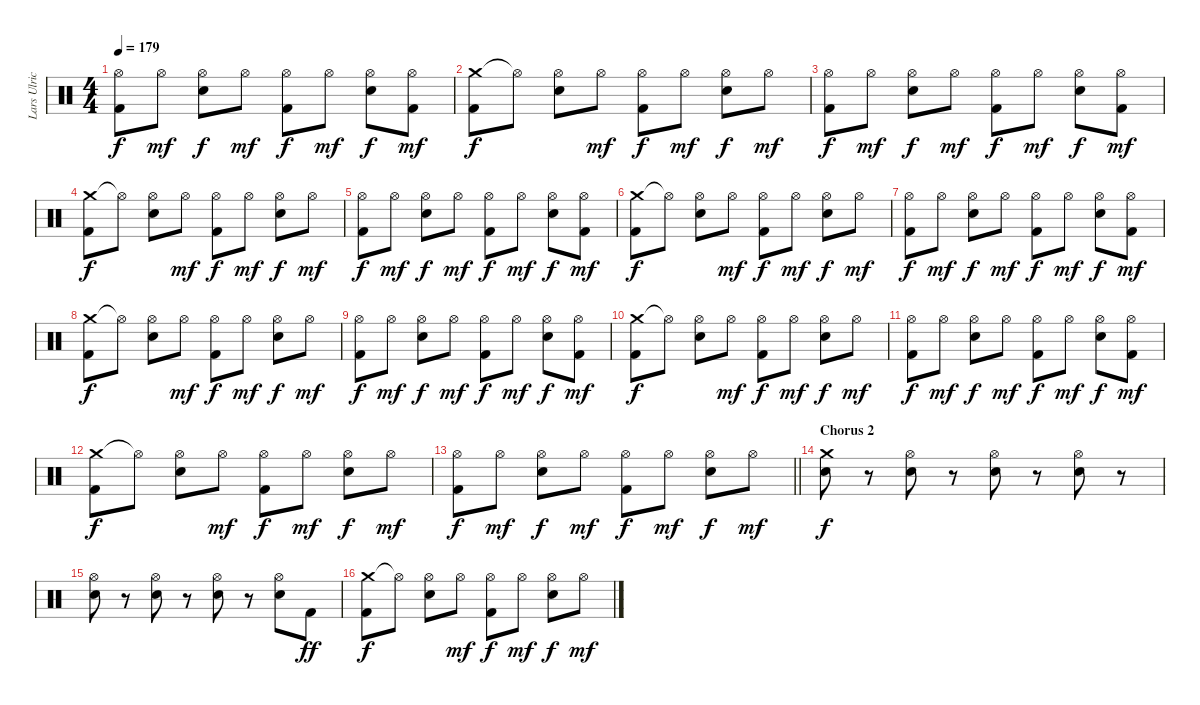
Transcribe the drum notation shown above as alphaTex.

\track ("Lars Ulrich" "Lars Ulric") {instrument percussion}
\staff {score}
\articulation defaults
\ts (4 4)
\tempo 179
\clef neutral
\ks c
("Hi-Hat (open)" "Kick (hit) 2").8{dy f} "Hi-Hat (open)".8{dy mf} ("Hi-Hat (open)" "Electric Snare (hit)").8{dy f} "Hi-Hat (open)".8{dy mf} ("Hi-Hat (open)" "Kick (hit) 2").8{dy f} "Hi-Hat (open)".8{dy mf} ("Hi-Hat (open)" "Electric Snare (hit)").8{dy f} ("Hi-Hat (open)" "Kick (hit) 2").8{dy mf} |
("Crash medium (hit)" "Kick (hit) 2").8{dy f} "Hi-Hat (open)"{t}.8 ("Hi-Hat (open)" "Electric Snare (hit)").8 "Hi-Hat (open)".8{dy mf} ("Hi-Hat (open)" "Kick (hit) 2").8{dy f} "Hi-Hat (open)".8{dy mf} ("Hi-Hat (open)" "Electric Snare (hit)").8{dy f} "Hi-Hat (open)".8{dy mf} |
("Hi-Hat (open)" "Kick (hit) 2").8{dy f} "Hi-Hat (open)".8{dy mf} ("Hi-Hat (open)" "Electric Snare (hit)").8{dy f} "Hi-Hat (open)".8{dy mf} ("Hi-Hat (open)" "Kick (hit) 2").8{dy f} "Hi-Hat (open)".8{dy mf} ("Hi-Hat (open)" "Electric Snare (hit)").8{dy f} ("Hi-Hat (open)" "Kick (hit) 2").8{dy mf} |
("Crash medium (hit)" "Kick (hit) 2").8{dy f} "Hi-Hat (open)"{t}.8 ("Hi-Hat (open)" "Electric Snare (hit)").8 "Hi-Hat (open)".8{dy mf} ("Hi-Hat (open)" "Kick (hit) 2").8{dy f} "Hi-Hat (open)".8{dy mf} ("Hi-Hat (open)" "Electric Snare (hit)").8{dy f} "Hi-Hat (open)".8{dy mf} |
("Hi-Hat (open)" "Kick (hit) 2").8{dy f} "Hi-Hat (open)".8{dy mf} ("Hi-Hat (open)" "Electric Snare (hit)").8{dy f} "Hi-Hat (open)".8{dy mf} ("Hi-Hat (open)" "Kick (hit) 2").8{dy f} "Hi-Hat (open)".8{dy mf} ("Hi-Hat (open)" "Electric Snare (hit)").8{dy f} ("Hi-Hat (open)" "Kick (hit) 2").8{dy mf} |
("Crash medium (hit)" "Kick (hit) 2").8{dy f} "Hi-Hat (open)"{t}.8 ("Hi-Hat (open)" "Electric Snare (hit)").8 "Hi-Hat (open)".8{dy mf} ("Hi-Hat (open)" "Kick (hit) 2").8{dy f} "Hi-Hat (open)".8{dy mf} ("Hi-Hat (open)" "Electric Snare (hit)").8{dy f} "Hi-Hat (open)".8{dy mf} |
("Hi-Hat (open)" "Kick (hit) 2").8{dy f} "Hi-Hat (open)".8{dy mf} ("Hi-Hat (open)" "Electric Snare (hit)").8{dy f} "Hi-Hat (open)".8{dy mf} ("Hi-Hat (open)" "Kick (hit) 2").8{dy f} "Hi-Hat (open)".8{dy mf} ("Hi-Hat (open)" "Electric Snare (hit)").8{dy f} ("Hi-Hat (open)" "Kick (hit) 2").8{dy mf} |
("Crash medium (hit)" "Kick (hit) 2").8{dy f} "Hi-Hat (open)"{t}.8 ("Hi-Hat (open)" "Electric Snare (hit)").8 "Hi-Hat (open)".8{dy mf} ("Hi-Hat (open)" "Kick (hit) 2").8{dy f} "Hi-Hat (open)".8{dy mf} ("Hi-Hat (open)" "Electric Snare (hit)").8{dy f} "Hi-Hat (open)".8{dy mf} |
("Hi-Hat (open)" "Kick (hit) 2").8{dy f} "Hi-Hat (open)".8{dy mf} ("Hi-Hat (open)" "Electric Snare (hit)").8{dy f} "Hi-Hat (open)".8{dy mf} ("Hi-Hat (open)" "Kick (hit) 2").8{dy f} "Hi-Hat (open)".8{dy mf} ("Hi-Hat (open)" "Electric Snare (hit)").8{dy f} ("Hi-Hat (open)" "Kick (hit) 2").8{dy mf} |
("Crash medium (hit)" "Kick (hit) 2").8{dy f} "Hi-Hat (open)"{t}.8 ("Hi-Hat (open)" "Electric Snare (hit)").8 "Hi-Hat (open)".8{dy mf} ("Hi-Hat (open)" "Kick (hit) 2").8{dy f} "Hi-Hat (open)".8{dy mf} ("Hi-Hat (open)" "Electric Snare (hit)").8{dy f} "Hi-Hat (open)".8{dy mf} |
("Hi-Hat (open)" "Kick (hit) 2").8{dy f} "Hi-Hat (open)".8{dy mf} ("Hi-Hat (open)" "Electric Snare (hit)").8{dy f} "Hi-Hat (open)".8{dy mf} ("Hi-Hat (open)" "Kick (hit) 2").8{dy f} "Hi-Hat (open)".8{dy mf} ("Hi-Hat (open)" "Electric Snare (hit)").8{dy f} ("Hi-Hat (open)" "Kick (hit) 2").8{dy mf} |
("Crash medium (hit)" "Kick (hit) 2").8{dy f} "Hi-Hat (open)"{t}.8 ("Hi-Hat (open)" "Electric Snare (hit)").8 "Hi-Hat (open)".8{dy mf} ("Hi-Hat (open)" "Kick (hit) 2").8{dy f} "Hi-Hat (open)".8{dy mf} ("Hi-Hat (open)" "Electric Snare (hit)").8{dy f} "Hi-Hat (open)".8{dy mf} |
\barLineRight lightlight
("Hi-Hat (open)" "Kick (hit) 2").8{dy f} "Hi-Hat (open)".8{dy mf} ("Hi-Hat (open)" "Electric Snare (hit)").8{dy f} "Hi-Hat (open)".8{dy mf} ("Hi-Hat (open)" "Kick (hit) 2").8{dy f} "Hi-Hat (open)".8{dy mf} ("Hi-Hat (open)" "Electric Snare (hit)").8{dy f} "Hi-Hat (open)".8{dy mf} |
\section ("" "Chorus 2")
("Crash medium (hit)" "Electric Snare (hit)").8{dy f} r.8 ("Hi-Hat (open)" "Electric Snare (hit)").8 r.8 ("Hi-Hat (open)" "Electric Snare (hit)").8 r.8 ("Hi-Hat (open)" "Electric Snare (hit)").8 r.8 |
("Hi-Hat (open)" "Electric Snare (hit)").8 r.8 ("Hi-Hat (open)" "Electric Snare (hit)").8 r.8 ("Hi-Hat (open)" "Electric Snare (hit)").8 r.8 ("Hi-Hat (open)" "Electric Snare (hit)").8 "Kick (hit) 2".8{dy ff} |
("Crash medium (hit)" "Kick (hit) 2").8{dy f} "Hi-Hat (open)"{t}.8 ("Hi-Hat (open)" "Electric Snare (hit)").8 "Hi-Hat (open)".8{dy mf} ("Hi-Hat (open)" "Kick (hit) 2").8{dy f} "Hi-Hat (open)".8{dy mf} ("Hi-Hat (open)" "Electric Snare (hit)").8{dy f} "Hi-Hat (open)".8{dy mf}
